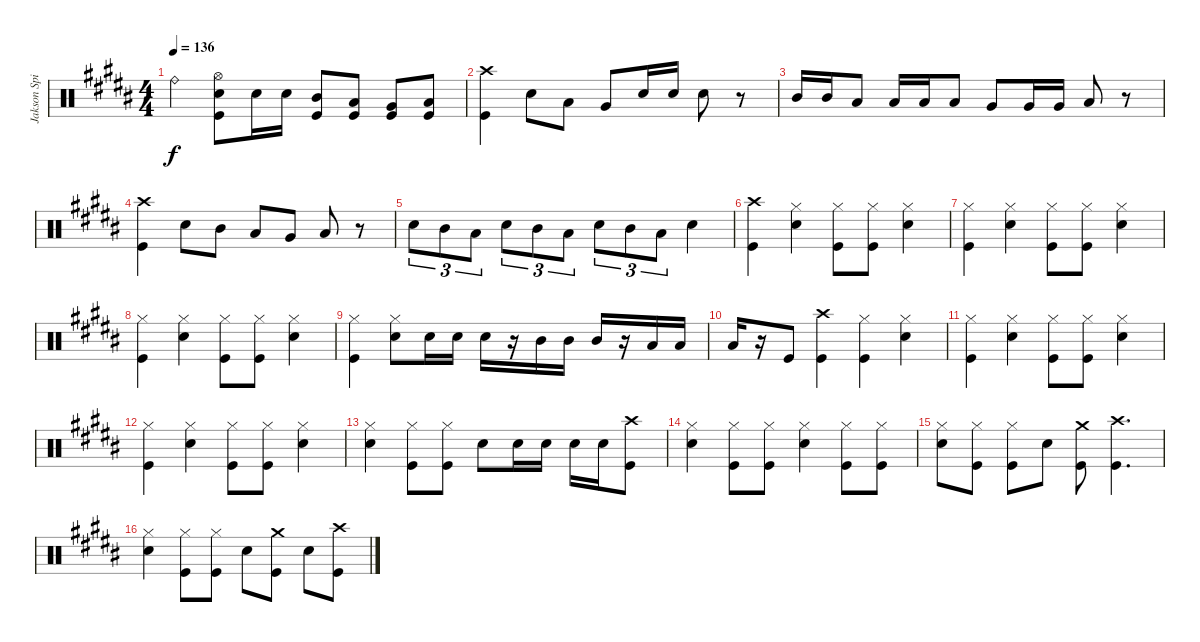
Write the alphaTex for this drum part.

\track ("Jakson Spires Drums" "Jakson Spi") {instrument percussion}
\staff {score}
\articulation defaults
\ts (4 4)
\tempo 136
\clef neutral
\ks b "Ride (bell)".4{dy f}
("Hi-Hat (open)" "Snare (hit) 2" "Kick (hit)").8 "Snare (hit) 2".16 "Snare (hit) 2".16 ("Mid Tom (hit)" "Kick (hit)").8 ("Low Tom (hit)" "Kick (hit)").8 ("Very Low Tom (hit)" "Kick (hit)").8 ("Low Floor Tom (hit)" "Kick (hit)").8 |
("Crash high (hit)" "Kick (hit)").4 "Snare (hit) 2".8 "Low Tom (hit)".8 "Very Low Tom (hit)".8 "Snare (hit) 2".16 "Snare (hit) 2".16 "Snare (hit) 2".8 r.8 |
"Mid Tom (hit)".16 "Mid Tom (hit)".16 "Low Tom (hit)".8 "Low Tom (hit)".16 "Low Tom (hit)".16 "Low Tom (hit)".8 "Very Low Tom (hit)".8 "Very Low Tom (hit)".16 "Very Low Tom (hit)".16 "Low Floor Tom (hit)".8 r.8 |
("Crash high (hit)" "Kick (hit)").4 "Snare (hit) 2".8 "Mid Tom (hit)".8 "Low Tom (hit)".8 "Very Low Tom (hit)".8 "Low Floor Tom (hit)".8 r.8 |
"Snare (hit) 2".8{tu (3 2)} "Mid Tom (hit)".8{tu (3 2)} "Low Tom (hit)".8{tu (3 2)} "Snare (hit) 2".8{tu (3 2)} "Mid Tom (hit)".8{tu (3 2)} "Low Tom (hit)".8{tu (3 2)} "Snare (hit) 2".8{tu (3 2)} "Mid Tom (hit)".8{tu (3 2)} "Low Tom (hit)".8{tu (3 2)} "Snare (hit) 2".4 |
("Crash high (hit)" "Kick (hit)").4 ("Hi-Hat (closed)" "Snare (hit) 2").4 ("Hi-Hat (closed)" "Kick (hit)").8 ("Hi-Hat (closed)" "Kick (hit)").8 ("Hi-Hat (closed)" "Snare (hit) 2").4 |
("Hi-Hat (closed)" "Kick (hit)").4 ("Hi-Hat (closed)" "Snare (hit) 2").4 ("Hi-Hat (closed)" "Kick (hit)").8 ("Hi-Hat (closed)" "Kick (hit)").8 ("Hi-Hat (closed)" "Snare (hit) 2").4 |
("Hi-Hat (closed)" "Kick (hit)").4 ("Hi-Hat (closed)" "Snare (hit) 2").4 ("Hi-Hat (closed)" "Kick (hit)").8 ("Hi-Hat (closed)" "Kick (hit)").8 ("Hi-Hat (closed)" "Snare (hit) 2").4 |
("Hi-Hat (closed)" "Kick (hit)").4 ("Hi-Hat (closed)" "Snare (hit) 2").8 "Snare (hit) 2".16 "Snare (hit) 2".16 "Snare (hit) 2".16 r.16 "Mid Tom (hit)".16 "Mid Tom (hit)".16 "Mid Tom (hit)".16 r.16 "Low Tom (hit)".16 "Low Tom (hit)".16 |
"Low Tom (hit)".16 r.16 "Kick (hit)".8 ("Crash high (hit)" "Kick (hit)").4 ("Hi-Hat (closed)" "Kick (hit)").4 ("Hi-Hat (closed)" "Snare (hit) 2").4 |
("Hi-Hat (closed)" "Kick (hit)").4 ("Hi-Hat (closed)" "Snare (hit) 2").4 ("Hi-Hat (closed)" "Kick (hit)").8 ("Hi-Hat (closed)" "Kick (hit)").8 ("Hi-Hat (closed)" "Snare (hit) 2").4 |
("Hi-Hat (closed)" "Kick (hit)").4 ("Hi-Hat (closed)" "Snare (hit) 2").4 ("Hi-Hat (closed)" "Kick (hit)").8 ("Hi-Hat (closed)" "Kick (hit)").8 ("Hi-Hat (closed)" "Snare (hit) 2").4 |
("Hi-Hat (closed)" "Snare (hit) 2").4 ("Hi-Hat (closed)" "Kick (hit)").8 ("Hi-Hat (closed)" "Kick (hit)").8 "Snare (hit) 2".8 "Snare (hit) 2".16 "Snare (hit) 2".16 "Snare (hit) 2".16 "Snare (hit) 2".16 ("Crash high (hit)" "Kick (hit)").8 |
("Hi-Hat (closed)" "Snare (hit) 2").4 ("Hi-Hat (closed)" "Kick (hit)").8 ("Hi-Hat (closed)" "Kick (hit)").8 ("Hi-Hat (closed)" "Snare (hit) 2").4 ("Hi-Hat (closed)" "Kick (hit)").8 ("Hi-Hat (closed)" "Kick (hit)").8 |
("Hi-Hat (closed)" "Snare (hit) 2").8 ("Hi-Hat (closed)" "Kick (hit)").8 ("Hi-Hat (closed)" "Kick (hit)").8 "Snare (hit) 2".8 ("Crash medium (hit)" "Kick (hit)").8 ("Crash high (hit)" "Kick (hit)").4{d} |
("Hi-Hat (closed)" "Snare (hit) 2").4 ("Hi-Hat (closed)" "Kick (hit)").8 ("Hi-Hat (closed)" "Kick (hit)").8 "Snare (hit) 2".8 ("Crash medium (hit)" "Kick (hit)").8 "Snare (hit) 2".8 ("Crash high (hit)" "Kick (hit)").8
